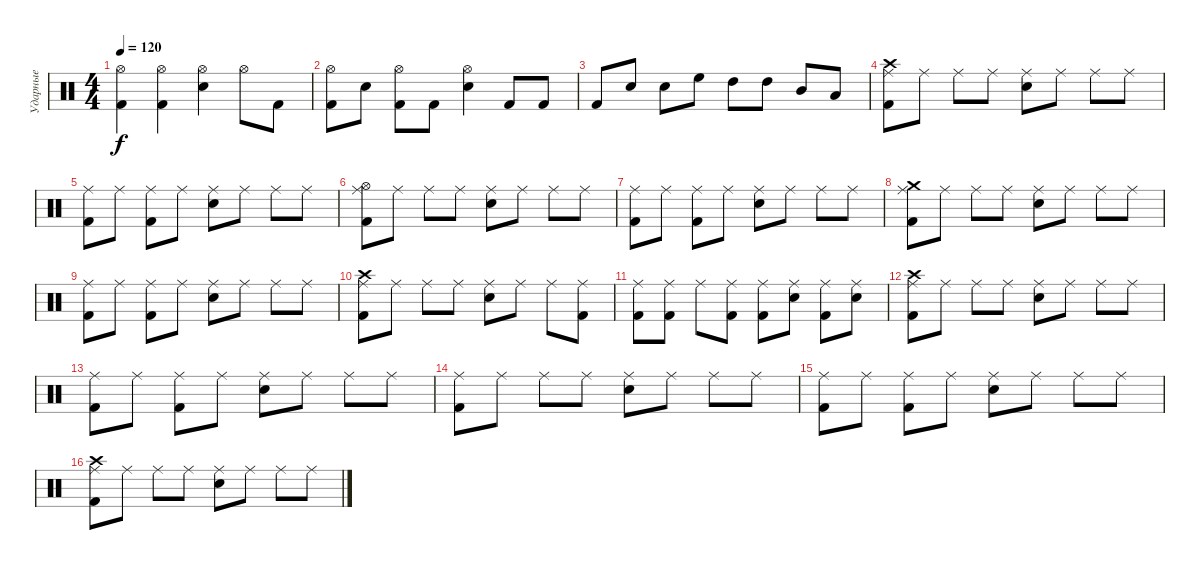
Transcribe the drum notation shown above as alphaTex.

\track ("Ударные" "Ударные") {instrument percussion}
\staff {score}
\articulation defaults
\ts (4 4)
\tempo 120
\clef neutral
\ks c
("Hi-Hat (open)" "Kick (hit) 2").4{dy f} ("Hi-Hat (open)" "Kick (hit) 2").4 ("Hi-Hat (open)" "Snare (hit) 2").4 "Hi-Hat (open)".8 "Kick (hit) 2".8 |
("Hi-Hat (open)" "Kick (hit) 2").8 "Snare (hit) 2".8 ("Hi-Hat (open)" "Kick (hit) 2").8 "Kick (hit) 2".8 ("Hi-Hat (open)" "Snare (hit) 2").4 "Kick (hit) 2".8 "Kick (hit) 2".8 |
"Kick (hit) 2".8 "Snare (hit) 2".8 "Snare (hit) 2".8 "High Floor Tom (hit)".8 "High Tom (hit)".8 "High Tom (hit)".8 "Mid Tom (hit)".8 "Low Tom (hit)".8 |
("Crash high (hit)" "Ride (middle)" "Kick (hit) 2").8 "Ride (middle)".8 "Ride (middle)".8 "Ride (middle)".8 ("Ride (middle)" "Snare (hit) 2").8 "Ride (middle)".8 "Ride (middle)".8 "Ride (middle)".8 |
("Ride (middle)" "Kick (hit) 2").8 "Ride (middle)".8 ("Ride (middle)" "Kick (hit) 2").8 "Ride (middle)".8 ("Ride (middle)" "Snare (hit) 2").8 "Ride (middle)".8 "Ride (middle)".8 "Ride (middle)".8 |
("Hi-Hat (open)" "Ride (middle)" "Kick (hit) 2").8 "Ride (middle)".8 "Ride (middle)".8 "Ride (middle)".8 ("Ride (middle)" "Snare (hit) 2").8 "Ride (middle)".8 "Ride (middle)".8 "Ride (middle)".8 |
("Ride (middle)" "Kick (hit) 2").8 "Ride (middle)".8 ("Ride (middle)" "Kick (hit) 2").8 "Ride (middle)".8 ("Ride (middle)" "Snare (hit) 2").8 "Ride (middle)".8 "Ride (middle)".8 "Ride (middle)".8 |
("Crash medium (hit)" "Ride (middle)" "Kick (hit) 2").8 "Ride (middle)".8 "Ride (middle)".8 "Ride (middle)".8 ("Ride (middle)" "Snare (hit) 2").8 "Ride (middle)".8 "Ride (middle)".8 "Ride (middle)".8 |
("Ride (middle)" "Kick (hit) 2").8 "Ride (middle)".8 ("Ride (middle)" "Kick (hit) 2").8 "Ride (middle)".8 ("Ride (middle)" "Snare (hit) 2").8 "Ride (middle)".8 "Ride (middle)".8 "Ride (middle)".8 |
("Crash high (hit)" "Ride (middle)" "Kick (hit) 2").8 "Ride (middle)".8 "Ride (middle)".8 "Ride (middle)".8 ("Ride (middle)" "Snare (hit) 2").8 "Ride (middle)".8 "Ride (middle)".8 ("Ride (middle)" "Kick (hit) 2").8 |
("Ride (middle)" "Kick (hit) 2").8 ("Ride (middle)" "Kick (hit) 2").8 "Ride (middle)".8 ("Ride (middle)" "Kick (hit) 2").8 ("Ride (middle)" "Kick (hit) 2").8 ("Ride (middle)" "Snare (hit) 2").8 ("Ride (middle)" "Kick (hit) 2").8 ("Ride (middle)" "Snare (hit) 2").8 |
("Crash high (hit)" "Ride (middle)" "Kick (hit) 2").8 "Ride (middle)".8 "Ride (middle)".8 "Ride (middle)".8 ("Ride (middle)" "Snare (hit) 2").8 "Ride (middle)".8 "Ride (middle)".8 "Ride (middle)".8 |
("Ride (middle)" "Kick (hit) 2").8 "Ride (middle)".8 ("Ride (middle)" "Kick (hit) 2").8 "Ride (middle)".8 ("Ride (middle)" "Snare (hit) 2").8 "Ride (middle)".8 "Ride (middle)".8 "Ride (middle)".8 |
("Ride (middle)" "Kick (hit) 2").8 "Ride (middle)".8 "Ride (middle)".8 "Ride (middle)".8 ("Ride (middle)" "Snare (hit) 2").8 "Ride (middle)".8 "Ride (middle)".8 "Ride (middle)".8 |
("Ride (middle)" "Kick (hit) 2").8 "Ride (middle)".8 ("Ride (middle)" "Kick (hit) 2").8 "Ride (middle)".8 ("Ride (middle)" "Snare (hit) 2").8 "Ride (middle)".8 "Ride (middle)".8 "Ride (middle)".8 |
("Crash high (hit)" "Ride (middle)" "Kick (hit) 2").8 "Ride (middle)".8 "Ride (middle)".8 "Ride (middle)".8 ("Ride (middle)" "Snare (hit) 2").8 "Ride (middle)".8 "Ride (middle)".8 "Ride (middle)".8
